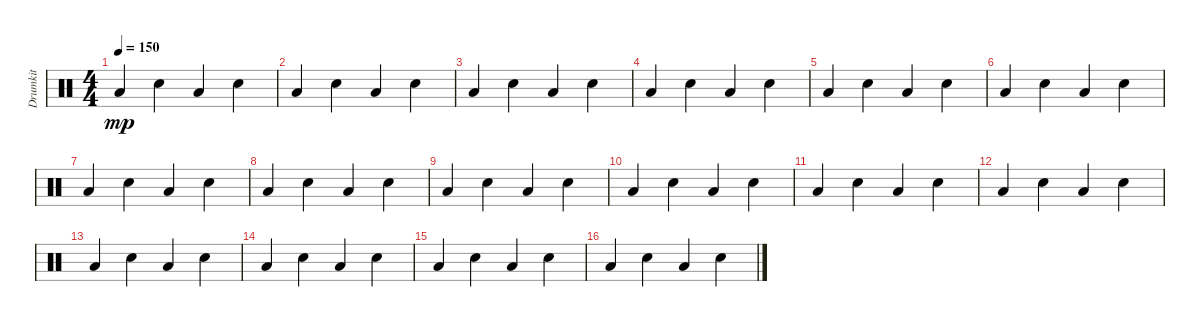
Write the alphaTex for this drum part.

\track ("Drumkit" "Drumkit") {instrument percussion}
\staff {score}
\articulation defaults
\ts (4 4)
\tempo 150
\clef neutral
\ks c "Low Floor Tom (hit)".4{dy mp} "Snare (hit) 2".4 "Low Floor Tom (hit)".4 "Snare (hit) 2".4
|
"Low Floor Tom (hit)".4 "Snare (hit) 2".4 "Low Floor Tom (hit)".4 "Snare (hit) 2".4 |
"Low Floor Tom (hit)".4 "Snare (hit) 2".4 "Low Floor Tom (hit)".4 "Snare (hit) 2".4 |
"Low Floor Tom (hit)".4 "Snare (hit) 2".4 "Low Floor Tom (hit)".4 "Snare (hit) 2".4 |
"Low Floor Tom (hit)".4 "Snare (hit) 2".4 "Low Floor Tom (hit)".4 "Snare (hit) 2".4 |
"Low Floor Tom (hit)".4 "Snare (hit) 2".4 "Low Floor Tom (hit)".4 "Snare (hit) 2".4 |
"Low Floor Tom (hit)".4 "Snare (hit) 2".4 "Low Floor Tom (hit)".4 "Snare (hit) 2".4 |
"Low Floor Tom (hit)".4 "Snare (hit) 2".4 "Low Floor Tom (hit)".4 "Snare (hit) 2".4 |
"Low Floor Tom (hit)".4 "Snare (hit) 2".4 "Low Floor Tom (hit)".4 "Snare (hit) 2".4 |
"Low Floor Tom (hit)".4 "Snare (hit) 2".4 "Low Floor Tom (hit)".4 "Snare (hit) 2".4 |
"Low Floor Tom (hit)".4 "Snare (hit) 2".4 "Low Floor Tom (hit)".4 "Snare (hit) 2".4 |
"Low Floor Tom (hit)".4 "Snare (hit) 2".4 "Low Floor Tom (hit)".4 "Snare (hit) 2".4 |
"Low Floor Tom (hit)".4 "Snare (hit) 2".4 "Low Floor Tom (hit)".4 "Snare (hit) 2".4 |
"Low Floor Tom (hit)".4 "Snare (hit) 2".4 "Low Floor Tom (hit)".4 "Snare (hit) 2".4 |
"Low Floor Tom (hit)".4 "Snare (hit) 2".4 "Low Floor Tom (hit)".4 "Snare (hit) 2".4 |
"Low Floor Tom (hit)".4 "Snare (hit) 2".4 "Low Floor Tom (hit)".4 "Snare (hit) 2".4
